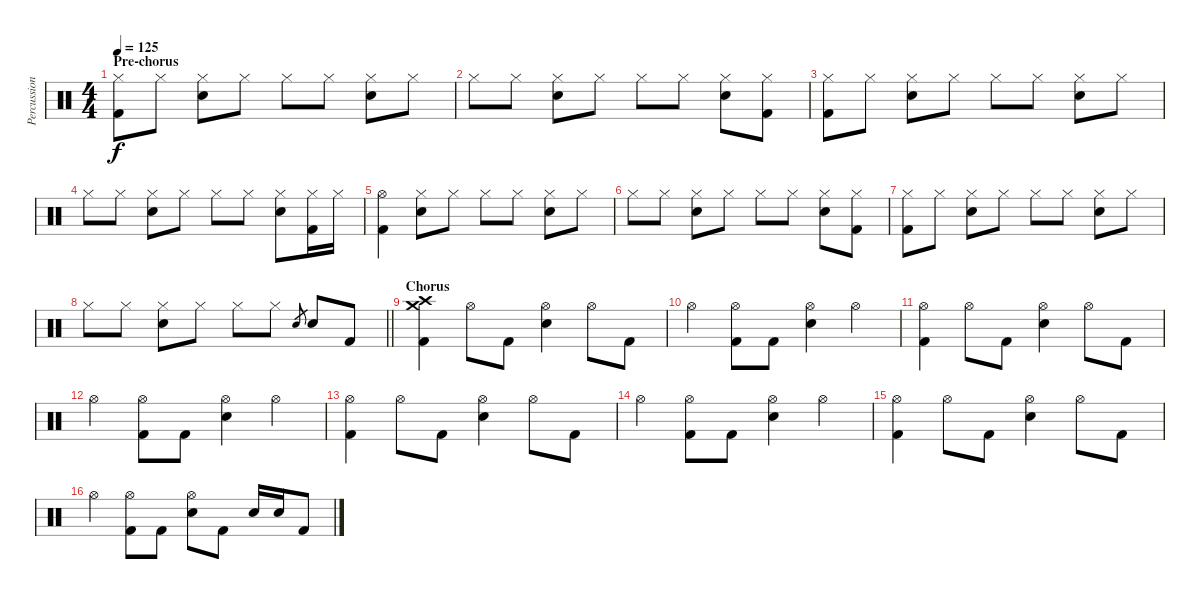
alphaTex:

\track ("Percussion" "Percussion") {instrument percussion}
\staff {score}
\articulation defaults
\ts (4 4)
\section ("" "Pre-chorus")
\tempo 125
\clef neutral
\ks c
("Hi-Hat (closed)" "Kick (hit) 2").8{dy f} "Hi-Hat (closed)".8 ("Hi-Hat (closed)" "Electric Snare (hit)").8 "Hi-Hat (closed)".8 "Hi-Hat (closed)".8 "Hi-Hat (closed)".8 ("Hi-Hat (closed)" "Electric Snare (hit)").8 "Hi-Hat (closed)".8 |
"Hi-Hat (closed)".8 "Hi-Hat (closed)".8 ("Hi-Hat (closed)" "Electric Snare (hit)").8 "Hi-Hat (closed)".8 "Hi-Hat (closed)".8 "Hi-Hat (closed)".8 ("Hi-Hat (closed)" "Electric Snare (hit)").8 ("Hi-Hat (closed)" "Kick (hit) 2").8 |
("Hi-Hat (closed)" "Kick (hit) 2").8 "Hi-Hat (closed)".8 ("Hi-Hat (closed)" "Electric Snare (hit)").8 "Hi-Hat (closed)".8 "Hi-Hat (closed)".8 "Hi-Hat (closed)".8 ("Hi-Hat (closed)" "Electric Snare (hit)").8 "Hi-Hat (closed)".8 |
"Hi-Hat (closed)".8 "Hi-Hat (closed)".8 ("Hi-Hat (closed)" "Electric Snare (hit)").8 "Hi-Hat (closed)".8 "Hi-Hat (closed)".8 "Hi-Hat (closed)".8 ("Hi-Hat (closed)" "Electric Snare (hit)").8 ("Hi-Hat (closed)" "Kick (hit) 2").16 "Hi-Hat (closed)".16 |
("Hi-Hat (open)" "Kick (hit) 2").4 ("Hi-Hat (closed)" "Electric Snare (hit)").8 "Hi-Hat (closed)".8 "Hi-Hat (closed)".8 "Hi-Hat (closed)".8 ("Hi-Hat (closed)" "Electric Snare (hit)").8 "Hi-Hat (closed)".8 |
"Hi-Hat (closed)".8 "Hi-Hat (closed)".8 ("Hi-Hat (closed)" "Electric Snare (hit)").8 "Hi-Hat (closed)".8 "Hi-Hat (closed)".8 "Hi-Hat (closed)".8 ("Hi-Hat (closed)" "Electric Snare (hit)").8 ("Hi-Hat (closed)" "Kick (hit) 2").8 |
("Hi-Hat (closed)" "Kick (hit) 2").8 "Hi-Hat (closed)".8 ("Hi-Hat (closed)" "Electric Snare (hit)").8 "Hi-Hat (closed)".8 "Hi-Hat (closed)".8 "Hi-Hat (closed)".8 ("Hi-Hat (closed)" "Electric Snare (hit)").8 "Hi-Hat (closed)".8 |
\barLineRight lightlight "Hi-Hat (closed)".8 "Hi-Hat (closed)".8
("Hi-Hat (closed)" "Electric Snare (hit)").8 "Hi-Hat (closed)".8 "Hi-Hat (closed)".8 "Hi-Hat (closed)".8 "Electric Snare (hit)".8{gr} "Electric Snare (hit)".8 "Kick (hit) 2".8 |
\section ("" "Chorus")
("Crash high (hit)" "Crash medium (hit)" "Kick (hit) 2").4 "Hi-Hat (open)".8 "Kick (hit) 2".8 ("Hi-Hat (open)" "Electric Snare (hit)").4 "Hi-Hat (open)".8 "Kick (hit) 2".8 |
"Hi-Hat (open)".4 ("Hi-Hat (open)" "Kick (hit) 2").8 "Kick (hit) 2".8 ("Hi-Hat (open)" "Electric Snare (hit)").4 "Hi-Hat (open)".4 |
("Hi-Hat (open)" "Kick (hit) 2").4 "Hi-Hat (open)".8 "Kick (hit) 2".8 ("Hi-Hat (open)" "Electric Snare (hit)").4 "Hi-Hat (open)".8 "Kick (hit) 2".8 |
"Hi-Hat (open)".4 ("Hi-Hat (open)" "Kick (hit) 2").8 "Kick (hit) 2".8 ("Hi-Hat (open)" "Electric Snare (hit)").4 "Hi-Hat (open)".4 |
("Hi-Hat (open)" "Kick (hit) 2").4 "Hi-Hat (open)".8 "Kick (hit) 2".8 ("Hi-Hat (open)" "Electric Snare (hit)").4 "Hi-Hat (open)".8 "Kick (hit) 2".8 |
"Hi-Hat (open)".4 ("Hi-Hat (open)" "Kick (hit) 2").8 "Kick (hit) 2".8 ("Hi-Hat (open)" "Electric Snare (hit)").4 "Hi-Hat (open)".4 |
("Hi-Hat (open)" "Kick (hit) 2").4 "Hi-Hat (open)".8 "Kick (hit) 2".8 ("Hi-Hat (open)" "Electric Snare (hit)").4 "Hi-Hat (open)".8 "Kick (hit) 2".8 |
"Hi-Hat (open)".4 ("Hi-Hat (open)" "Kick (hit) 2").8 "Kick (hit) 2".8 ("Hi-Hat (open)" "Electric Snare (hit)").8 "Kick (hit) 2".8 "Electric Snare (hit)".16 "Electric Snare (hit)".16 "Kick (hit) 2".8
